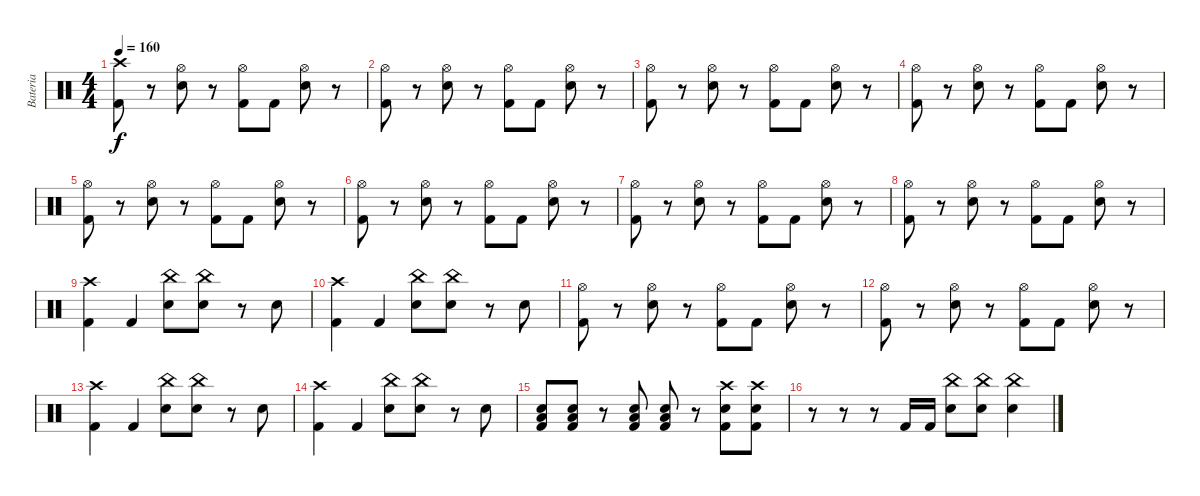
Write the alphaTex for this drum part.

\track ("Bateria" "Bateria") {instrument percussion}
\staff {score}
\articulation defaults
\ts (4 4)
\tempo 160
\clef neutral
\ks c
("Crash high (hit)" "Kick (hit) 2").8{dy f} r.8 ("Hi-Hat (open)" "Electric Snare (hit)").8 r.8 ("Hi-Hat (open)" "Kick (hit) 2").8 "Kick (hit) 2".8 ("Hi-Hat (open)" "Electric Snare (hit)").8 r.8 |
("Hi-Hat (open)" "Kick (hit) 2").8 r.8 ("Hi-Hat (open)" "Electric Snare (hit)").8 r.8 ("Hi-Hat (open)" "Kick (hit) 2").8 "Kick (hit) 2".8 ("Hi-Hat (open)" "Electric Snare (hit)").8 r.8 |
("Hi-Hat (open)" "Kick (hit) 2").8 r.8 ("Hi-Hat (open)" "Electric Snare (hit)").8 r.8 ("Hi-Hat (open)" "Kick (hit) 2").8 "Kick (hit) 2".8 ("Hi-Hat (open)" "Electric Snare (hit)").8 r.8 |
("Hi-Hat (open)" "Kick (hit) 2").8 r.8 ("Hi-Hat (open)" "Electric Snare (hit)").8 r.8 ("Hi-Hat (open)" "Kick (hit) 2").8 "Kick (hit) 2".8 ("Hi-Hat (open)" "Electric Snare (hit)").8 r.8 |
("Hi-Hat (open)" "Kick (hit) 2").8 r.8 ("Hi-Hat (open)" "Electric Snare (hit)").8 r.8 ("Hi-Hat (open)" "Kick (hit) 2").8 "Kick (hit) 2".8 ("Hi-Hat (open)" "Electric Snare (hit)").8 r.8 |
("Hi-Hat (open)" "Kick (hit) 2").8 r.8 ("Hi-Hat (open)" "Electric Snare (hit)").8 r.8 ("Hi-Hat (open)" "Kick (hit) 2").8 "Kick (hit) 2".8 ("Hi-Hat (open)" "Electric Snare (hit)").8 r.8 |
("Hi-Hat (open)" "Kick (hit) 2").8 r.8 ("Hi-Hat (open)" "Electric Snare (hit)").8 r.8 ("Hi-Hat (open)" "Kick (hit) 2").8 "Kick (hit) 2".8 ("Hi-Hat (open)" "Electric Snare (hit)").8 r.8 |
("Hi-Hat (open)" "Kick (hit) 2").8 r.8 ("Hi-Hat (open)" "Electric Snare (hit)").8 r.8 ("Hi-Hat (open)" "Kick (hit) 2").8 "Kick (hit) 2".8 ("Hi-Hat (open)" "Electric Snare (hit)").8 r.8 |
("Crash high (hit)" "Kick (hit) 2").4 "Kick (hit) 2".4 ("China (hit)" "Electric Snare (hit)").8 ("China (hit)" "Electric Snare (hit)").8 r.8 "Electric Snare (hit)".8 |
("Crash high (hit)" "Kick (hit) 2").4 "Kick (hit) 2".4 ("China (hit)" "Electric Snare (hit)").8 ("China (hit)" "Electric Snare (hit)").8 r.8 "Electric Snare (hit)".8 |
("Hi-Hat (open)" "Kick (hit) 2").8 r.8 ("Hi-Hat (open)" "Electric Snare (hit)").8 r.8 ("Hi-Hat (open)" "Kick (hit) 2").8 "Kick (hit) 2".8 ("Hi-Hat (open)" "Electric Snare (hit)").8 r.8 |
("Hi-Hat (open)" "Kick (hit) 2").8 r.8 ("Hi-Hat (open)" "Electric Snare (hit)").8 r.8 ("Hi-Hat (open)" "Kick (hit) 2").8 "Kick (hit) 2".8 ("Hi-Hat (open)" "Electric Snare (hit)").8 r.8 |
("Crash high (hit)" "Kick (hit) 2").4 "Kick (hit) 2".4 ("China (hit)" "Electric Snare (hit)").8 ("China (hit)" "Electric Snare (hit)").8 r.8 "Electric Snare (hit)".8 |
("Crash high (hit)" "Kick (hit) 2").4 "Kick (hit) 2".4 ("China (hit)" "Electric Snare (hit)").8 ("China (hit)" "Electric Snare (hit)").8 r.8 "Electric Snare (hit)".8 |
("Low Floor Tom (hit)" "Electric Snare (hit)" "Kick (hit) 2").8 ("Low Floor Tom (hit)" "Electric Snare (hit)" "Kick (hit) 2").8 r.8 ("Low Floor Tom (hit)" "Electric Snare (hit)" "Kick (hit) 2").8 ("Low Floor Tom (hit)" "Electric Snare (hit)" "Kick (hit) 2").8 r.8 ("Crash high (hit)" "Electric Snare (hit)" "Kick (hit) 2").8 ("Crash high (hit)" "Electric Snare (hit)" "Kick (hit) 2").8 |
r.8 r.8 r.8 "Kick (hit) 2".16 "Kick (hit) 2".16 ("China (hit)" "Electric Snare (hit)").8 ("China (hit)" "Electric Snare (hit)").8 ("China (hit)" "Electric Snare (hit)").4
